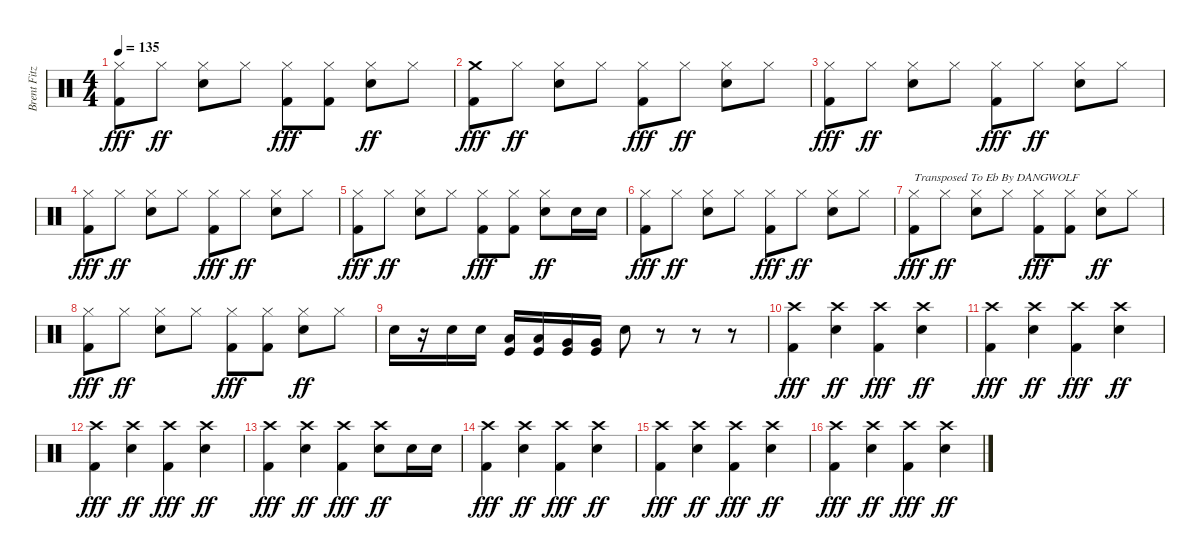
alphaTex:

\track ("Brent Fitz" "Brent Fitz") {instrument percussion}
\staff {score}
\articulation defaults
\ts (4 4)
\tempo 135
\clef neutral
\ks c
("Hi-Hat (closed)" "Kick (hit) 2").8{dy fff} "Hi-Hat (closed)".8{dy ff} ("Hi-Hat (closed)" "Snare (hit) 2").8 "Hi-Hat (closed)".8 ("Hi-Hat (closed)" "Kick (hit) 2").8{dy fff} ("Hi-Hat (closed)" "Kick (hit) 2").8 ("Hi-Hat (closed)" "Snare (hit) 2").8{dy ff} "Hi-Hat (closed)".8 |
("Crash medium (hit)" "Kick (hit) 2").8{dy fff} "Hi-Hat (closed)".8{dy ff} ("Hi-Hat (closed)" "Snare (hit) 2").8 "Hi-Hat (closed)".8 ("Hi-Hat (closed)" "Kick (hit) 2").8{dy fff} "Hi-Hat (closed)".8{dy ff} ("Hi-Hat (closed)" "Snare (hit) 2").8 "Hi-Hat (closed)".8 |
("Hi-Hat (closed)" "Kick (hit) 2").8{dy fff} "Hi-Hat (closed)".8{dy ff} ("Hi-Hat (closed)" "Snare (hit) 2").8 "Hi-Hat (closed)".8 ("Hi-Hat (closed)" "Kick (hit) 2").8{dy fff} "Hi-Hat (closed)".8{dy ff} ("Hi-Hat (closed)" "Snare (hit) 2").8 "Hi-Hat (closed)".8 |
("Hi-Hat (closed)" "Kick (hit) 2").8{dy fff} "Hi-Hat (closed)".8{dy ff} ("Hi-Hat (closed)" "Snare (hit) 2").8 "Hi-Hat (closed)".8 ("Hi-Hat (closed)" "Kick (hit) 2").8{dy fff} "Hi-Hat (closed)".8{dy ff} ("Hi-Hat (closed)" "Snare (hit) 2").8 "Hi-Hat (closed)".8 |
("Hi-Hat (closed)" "Kick (hit) 2").8{dy fff} "Hi-Hat (closed)".8{dy ff} ("Hi-Hat (closed)" "Snare (hit) 2").8 "Hi-Hat (closed)".8 ("Hi-Hat (closed)" "Kick (hit) 2").8{dy fff} ("Hi-Hat (closed)" "Kick (hit) 2").8 ("Hi-Hat (closed)" "Snare (hit) 2").8{dy ff} "Snare (hit) 2".16 "Snare (hit) 2".16 |
("Hi-Hat (closed)" "Kick (hit) 2").8{dy fff} "Hi-Hat (closed)".8{dy ff} ("Hi-Hat (closed)" "Snare (hit) 2").8 "Hi-Hat (closed)".8 ("Hi-Hat (closed)" "Kick (hit) 2").8{dy fff} "Hi-Hat (closed)".8{dy ff} ("Hi-Hat (closed)" "Snare (hit) 2").8 "Hi-Hat (closed)".8 |
("Hi-Hat (closed)" "Kick (hit) 2").8{txt "Transposed To Eb By DANGWOLF" dy fff} "Hi-Hat (closed)".8{dy ff} ("Hi-Hat (closed)" "Snare (hit) 2").8 "Hi-Hat (closed)".8 ("Hi-Hat (closed)" "Kick (hit) 2").8{dy fff} ("Hi-Hat (closed)" "Kick (hit) 2").8 ("Hi-Hat (closed)" "Snare (hit) 2").8{dy ff} "Hi-Hat (closed)".8 |
("Hi-Hat (closed)" "Kick (hit) 2").8{dy fff} "Hi-Hat (closed)".8{dy ff} ("Hi-Hat (closed)" "Snare (hit) 2").8 "Hi-Hat (closed)".8 ("Hi-Hat (closed)" "Kick (hit) 2").8{dy fff} ("Hi-Hat (closed)" "Kick (hit) 2").8 ("Hi-Hat (closed)" "Snare (hit) 2").8{dy ff} "Hi-Hat (closed)".8 |
"Snare (hit) 2".16 r.16 "Snare (hit) 2".16 "Snare (hit) 2".16 ("Low Tom (hit)" "Kick (hit)").16 ("Low Tom (hit)" "Kick (hit)").16 ("Very Low Tom (hit)" "Kick (hit)").16 ("Very Low Tom (hit)" "Kick (hit)").16 "Snare (hit) 2".8 r.8 r.8 r.8 |
("Crash high (hit)" "Kick (hit) 2").4{dy fff} ("Crash high (hit)" "Snare (hit) 2").4{dy ff} ("Crash high (hit)" "Kick (hit) 2").4{dy fff} ("Crash high (hit)" "Snare (hit) 2").4{dy ff} |
("Crash high (hit)" "Kick (hit) 2").4{dy fff} ("Crash high (hit)" "Snare (hit) 2").4{dy ff} ("Crash high (hit)" "Kick (hit) 2").4{dy fff} ("Crash high (hit)" "Snare (hit) 2").4{dy ff} |
("Crash high (hit)" "Kick (hit) 2").4{dy fff} ("Crash high (hit)" "Snare (hit) 2").4{dy ff} ("Crash high (hit)" "Kick (hit) 2").4{dy fff} ("Crash high (hit)" "Snare (hit) 2").4{dy ff} |
("Crash high (hit)" "Kick (hit) 2").4{dy fff} ("Crash high (hit)" "Snare (hit) 2").4{dy ff} ("Crash high (hit)" "Kick (hit) 2").4{dy fff} ("Crash high (hit)" "Snare (hit) 2").8{dy ff} "Snare (hit) 2".16 "Snare (hit) 2".16 |
("Crash high (hit)" "Kick (hit) 2").4{dy fff} ("Crash high (hit)" "Snare (hit) 2").4{dy ff} ("Crash high (hit)" "Kick (hit) 2").4{dy fff} ("Crash high (hit)" "Snare (hit) 2").4{dy ff} |
("Crash high (hit)" "Kick (hit) 2").4{dy fff} ("Crash high (hit)" "Snare (hit) 2").4{dy ff} ("Crash high (hit)" "Kick (hit) 2").4{dy fff} ("Crash high (hit)" "Snare (hit) 2").4{dy ff} |
("Crash high (hit)" "Kick (hit) 2").4{dy fff} ("Crash high (hit)" "Snare (hit) 2").4{dy ff} ("Crash high (hit)" "Kick (hit) 2").4{dy fff} ("Crash high (hit)" "Snare (hit) 2").4{dy ff}
